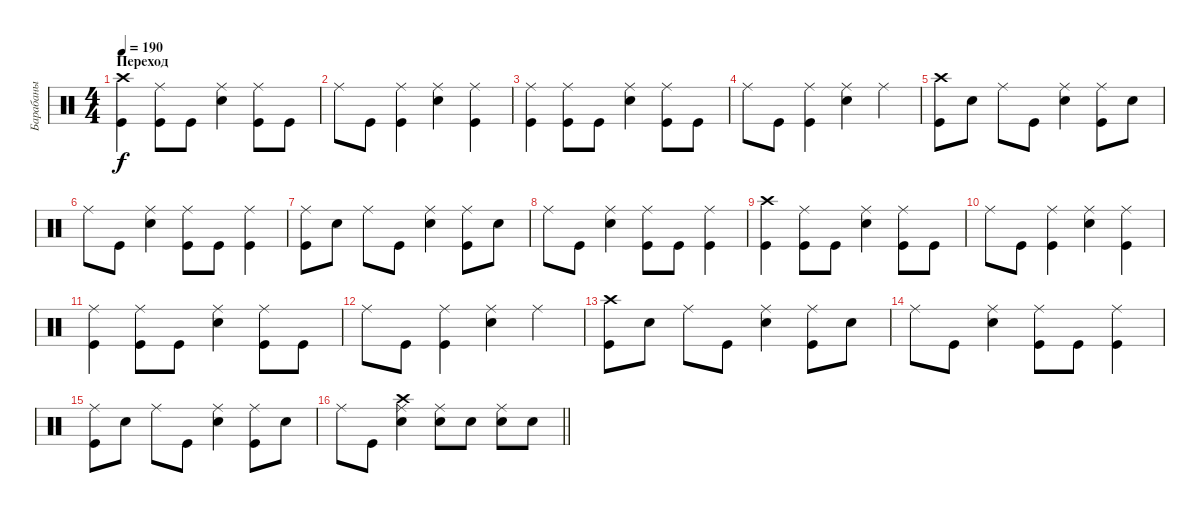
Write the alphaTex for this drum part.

\track ("Барабаны" "Барабаны") {instrument percussion}
\staff {score}
\articulation defaults
\ts (4 4)
\section ("" "Переход")
\tempo 190
\clef neutral
\ks c
("Kick (hit)" "Crash high (hit)").4{dy f} ("Kick (hit)" "Ride (middle)").8 "Kick (hit)".8 ("Snare (hit) 2" "Ride (middle)").4 ("Kick (hit)" "Ride (middle)").8 "Kick (hit)".8 |
"Ride (middle)".8 "Kick (hit)".8 ("Kick (hit)" "Ride (middle)").4 ("Snare (hit) 2" "Ride (middle)").4 ("Kick (hit)" "Ride (middle)").4 |
("Kick (hit)" "Ride (middle)").4 ("Kick (hit)" "Ride (middle)").8 "Kick (hit)".8 ("Snare (hit) 2" "Ride (middle)").4 ("Kick (hit)" "Ride (middle)").8 "Kick (hit)".8 |
"Ride (middle)".8 "Kick (hit)".8 ("Kick (hit)" "Ride (middle)").4 ("Snare (hit) 2" "Ride (middle)").4 "Ride (middle)".4 |
("Kick (hit)" "Crash high (hit)").8 "Snare (hit) 2".8 "Ride (middle)".8 "Kick (hit)".8 ("Snare (hit) 2" "Ride (middle)").4 ("Kick (hit)" "Ride (middle)").8 "Snare (hit) 2".8 |
"Ride (middle)".8 "Kick (hit)".8 ("Snare (hit) 2" "Ride (middle)").4 ("Kick (hit)" "Ride (middle)").8 "Kick (hit)".8 ("Kick (hit)" "Ride (middle)").4 |
("Kick (hit)" "Ride (middle)").8 "Snare (hit) 2".8 "Ride (middle)".8 "Kick (hit)".8 ("Snare (hit) 2" "Ride (middle)").4 ("Kick (hit)" "Ride (middle)").8 "Snare (hit) 2".8 |
"Ride (middle)".8 "Kick (hit)".8 ("Snare (hit) 2" "Ride (middle)").4 ("Kick (hit)" "Ride (middle)").8 "Kick (hit)".8 ("Kick (hit)" "Ride (middle)").4 |
("Kick (hit)" "Crash high (hit)").4 ("Kick (hit)" "Ride (middle)").8 "Kick (hit)".8 ("Snare (hit) 2" "Ride (middle)").4 ("Kick (hit)" "Ride (middle)").8 "Kick (hit)".8 |
"Ride (middle)".8 "Kick (hit)".8 ("Kick (hit)" "Ride (middle)").4 ("Snare (hit) 2" "Ride (middle)").4 ("Kick (hit)" "Ride (middle)").4 |
("Kick (hit)" "Ride (middle)").4 ("Kick (hit)" "Ride (middle)").8 "Kick (hit)".8 ("Snare (hit) 2" "Ride (middle)").4 ("Kick (hit)" "Ride (middle)").8 "Kick (hit)".8 |
"Ride (middle)".8 "Kick (hit)".8 ("Kick (hit)" "Ride (middle)").4 ("Snare (hit) 2" "Ride (middle)").4 "Ride (middle)".4 |
("Kick (hit)" "Crash high (hit)").8 "Snare (hit) 2".8 "Ride (middle)".8 "Kick (hit)".8 ("Snare (hit) 2" "Ride (middle)").4 ("Kick (hit)" "Ride (middle)").8 "Snare (hit) 2".8 |
"Ride (middle)".8 "Kick (hit)".8 ("Snare (hit) 2" "Ride (middle)").4 ("Kick (hit)" "Ride (middle)").8 "Kick (hit)".8 ("Kick (hit)" "Ride (middle)").4 |
("Kick (hit)" "Ride (middle)").8 "Snare (hit) 2".8 "Ride (middle)".8 "Kick (hit)".8 ("Snare (hit) 2" "Ride (middle)").4 ("Kick (hit)" "Ride (middle)").8 "Snare (hit) 2".8 |
\barLineRight lightlight "Ride (middle)".8 "Kick (hit)".8
("Snare (hit) 2" "Crash high (hit)" "Ride (middle)").4 ("Snare (hit) 2" "Ride (middle)").8 "Snare (hit) 2".8 ("Snare (hit) 2" "Ride (middle)").8 "Snare (hit) 2".8
